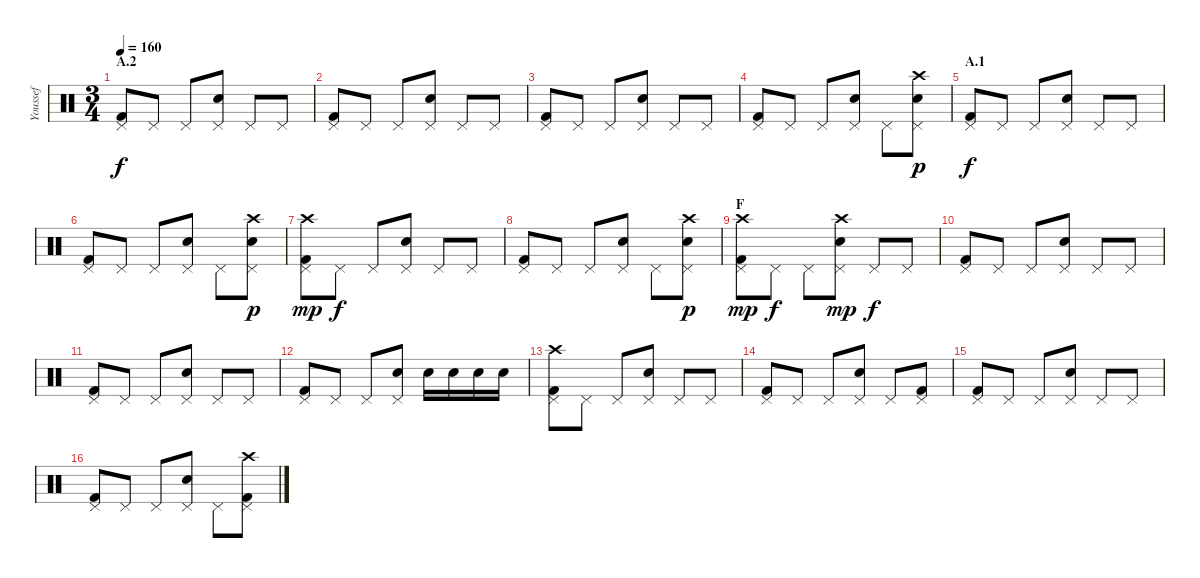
\track ("Youssef" "Youssef") {instrument percussion}
\staff {score}
\articulation defaults
\ts (3 4)
\section ("" "A.2")
\tempo 160
\clef neutral
\ks c
("Kick (hit) 2" "Pedal Hi-Hat (hit)").8{dy f} "Pedal Hi-Hat (hit)".8 "Pedal Hi-Hat (hit)".8 ("Electric Snare (hit)" "Pedal Hi-Hat (hit)").8 "Pedal Hi-Hat (hit)".8 "Pedal Hi-Hat (hit)".8 |
("Kick (hit) 2" "Pedal Hi-Hat (hit)").8 "Pedal Hi-Hat (hit)".8 "Pedal Hi-Hat (hit)".8 ("Electric Snare (hit)" "Pedal Hi-Hat (hit)").8 "Pedal Hi-Hat (hit)".8 "Pedal Hi-Hat (hit)".8 |
("Kick (hit) 2" "Pedal Hi-Hat (hit)").8 "Pedal Hi-Hat (hit)".8 "Pedal Hi-Hat (hit)".8 ("Electric Snare (hit)" "Pedal Hi-Hat (hit)").8 "Pedal Hi-Hat (hit)".8 "Pedal Hi-Hat (hit)".8 |
("Kick (hit) 2" "Pedal Hi-Hat (hit)").8 "Pedal Hi-Hat (hit)".8 "Pedal Hi-Hat (hit)".8 ("Electric Snare (hit)" "Pedal Hi-Hat (hit)").8 "Pedal Hi-Hat (hit)".8 ("Crash high (hit)" "Electric Snare (hit)" "Pedal Hi-Hat (hit)").8{dy p} |
\section ("" "A.1")
("Kick (hit) 2" "Pedal Hi-Hat (hit)").8{dy f} "Pedal Hi-Hat (hit)".8 "Pedal Hi-Hat (hit)".8 ("Electric Snare (hit)" "Pedal Hi-Hat (hit)").8 "Pedal Hi-Hat (hit)".8 "Pedal Hi-Hat (hit)".8 |
("Kick (hit) 2" "Pedal Hi-Hat (hit)").8 "Pedal Hi-Hat (hit)".8 "Pedal Hi-Hat (hit)".8 ("Electric Snare (hit)" "Pedal Hi-Hat (hit)").8 "Pedal Hi-Hat (hit)".8 ("Crash high (hit)" "Electric Snare (hit)" "Pedal Hi-Hat (hit)").8{dy p} |
("Crash high (hit)" "Kick (hit) 2" "Pedal Hi-Hat (hit)").8{dy mp} "Pedal Hi-Hat (hit)".8{dy f} "Pedal Hi-Hat (hit)".8 ("Electric Snare (hit)" "Pedal Hi-Hat (hit)").8 "Pedal Hi-Hat (hit)".8 "Pedal Hi-Hat (hit)".8 |
("Kick (hit) 2" "Pedal Hi-Hat (hit)").8 "Pedal Hi-Hat (hit)".8 "Pedal Hi-Hat (hit)".8 ("Electric Snare (hit)" "Pedal Hi-Hat (hit)").8 "Pedal Hi-Hat (hit)".8 ("Crash high (hit)" "Electric Snare (hit)" "Pedal Hi-Hat (hit)").8{dy p} |
\section ("" "F")
("Crash high (hit)" "Kick (hit) 2" "Pedal Hi-Hat (hit)").8{dy mp} "Pedal Hi-Hat (hit)".8{dy f} "Pedal Hi-Hat (hit)".8 ("Crash high (hit)" "Electric Snare (hit)" "Pedal Hi-Hat (hit)").8{dy mp} "Pedal Hi-Hat (hit)".8{dy f} "Pedal Hi-Hat (hit)".8 |
("Kick (hit) 2" "Pedal Hi-Hat (hit)").8 "Pedal Hi-Hat (hit)".8 "Pedal Hi-Hat (hit)".8 ("Electric Snare (hit)" "Pedal Hi-Hat (hit)").8 "Pedal Hi-Hat (hit)".8 "Pedal Hi-Hat (hit)".8 |
("Kick (hit) 2" "Pedal Hi-Hat (hit)").8 "Pedal Hi-Hat (hit)".8 "Pedal Hi-Hat (hit)".8 ("Electric Snare (hit)" "Pedal Hi-Hat (hit)").8 "Pedal Hi-Hat (hit)".8 "Pedal Hi-Hat (hit)".8 |
("Kick (hit) 2" "Pedal Hi-Hat (hit)").8 "Pedal Hi-Hat (hit)".8 "Pedal Hi-Hat (hit)".8 ("Electric Snare (hit)" "Pedal Hi-Hat (hit)").8 "Electric Snare (hit)".16 "Electric Snare (hit)".16 "Electric Snare (hit)".16 "Electric Snare (hit)".16 |
("Kick (hit) 2" "Crash high (hit)" "Pedal Hi-Hat (hit)").8 "Pedal Hi-Hat (hit)".8 "Pedal Hi-Hat (hit)".8 ("Electric Snare (hit)" "Pedal Hi-Hat (hit)").8 "Pedal Hi-Hat (hit)".8 "Pedal Hi-Hat (hit)".8 |
("Kick (hit) 2" "Pedal Hi-Hat (hit)").8 "Pedal Hi-Hat (hit)".8 "Pedal Hi-Hat (hit)".8 ("Electric Snare (hit)" "Pedal Hi-Hat (hit)").8 "Pedal Hi-Hat (hit)".8 ("Kick (hit) 2" "Pedal Hi-Hat (hit)").8 |
("Kick (hit) 2" "Pedal Hi-Hat (hit)").8 "Pedal Hi-Hat (hit)".8 "Pedal Hi-Hat (hit)".8 ("Electric Snare (hit)" "Pedal Hi-Hat (hit)").8 "Pedal Hi-Hat (hit)".8 "Pedal Hi-Hat (hit)".8 |
("Kick (hit) 2" "Pedal Hi-Hat (hit)").8 "Pedal Hi-Hat (hit)".8 "Pedal Hi-Hat (hit)".8 ("Electric Snare (hit)" "Pedal Hi-Hat (hit)").8 "Pedal Hi-Hat (hit)".8 ("Kick (hit) 2" "Crash high (hit)" "Pedal Hi-Hat (hit)").8
